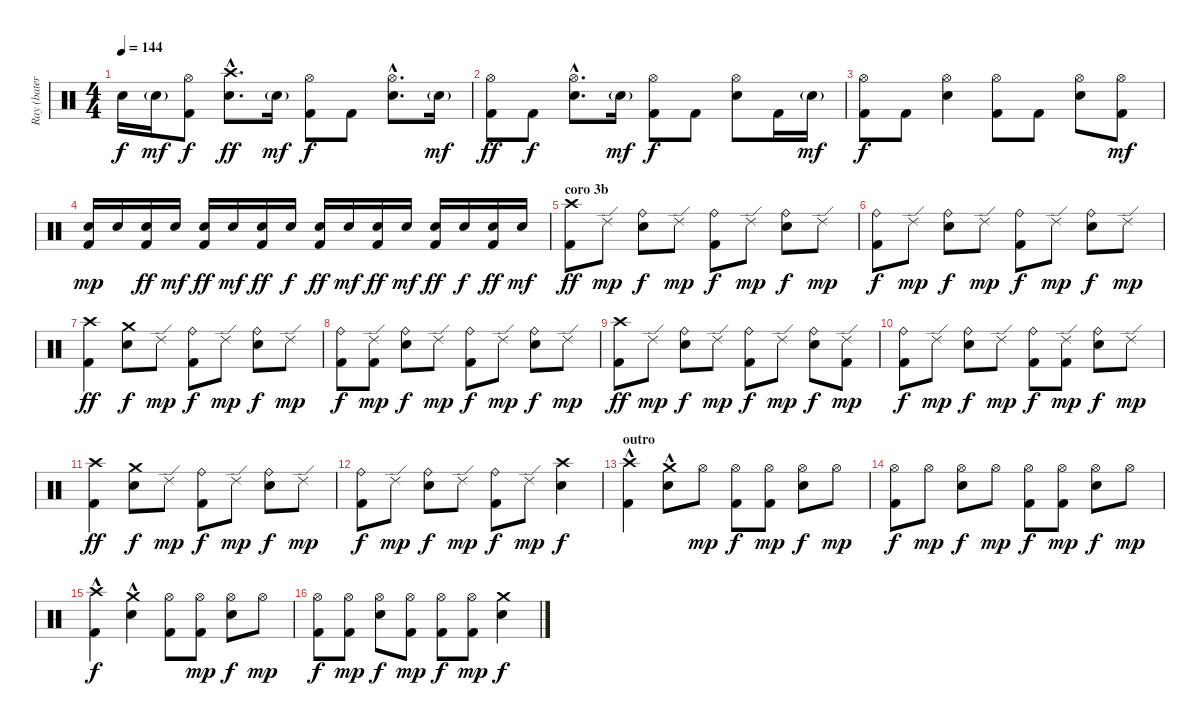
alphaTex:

\track ("Ray (batería)" "Ray (bater") {instrument percussion}
\staff {score}
\articulation defaults
\ts (4 4)
\tempo 144
\clef neutral
\ks c "Snare (hit) 2".16{dy f} "Snare (hit) 2"{g}.16{dy mf}
("Hi-Hat (open)" "Kick (hit) 2").8{dy f} ("Crash high (hit)"{hac} "Snare (hit) 2"{hac}).8{d dy ff} "Snare (hit) 2"{g}.16{dy mf} ("Hi-Hat (open)" "Kick (hit) 2").8{dy f} "Kick (hit) 2".8 ("Hi-Hat (open)"{hac} "Snare (hit) 2"{hac}).8{d} "Snare (hit) 2"{g}.16{dy mf} |
("Hi-Hat (open)" "Kick (hit) 2").8{dy ff} "Kick (hit) 2".8{dy f} ("Hi-Hat (open)"{hac} "Snare (hit) 2"{hac}).8{d} "Snare (hit) 2"{g}.16{dy mf} ("Hi-Hat (open)" "Kick (hit) 2").8{dy f} "Kick (hit) 2".8 ("Hi-Hat (open)" "Snare (hit) 2").8 "Kick (hit) 2".16 "Snare (hit) 2"{g}.16{dy mf} |
("Hi-Hat (open)" "Kick (hit) 2").8{dy f} "Kick (hit) 2".8 ("Hi-Hat (open)" "Snare (hit) 2").4 ("Hi-Hat (open)" "Kick (hit) 2").8 "Kick (hit) 2".8 ("Hi-Hat (open)" "Snare (hit) 2").8 ("Hi-Hat (open)" "Kick (hit) 2").8{dy mf} |
("Snare (hit) 2" "Kick (hit) 2").16{dy mp} "Snare (hit) 2".16 ("Snare (hit) 2" "Kick (hit) 2").16{dy ff} "Snare (hit) 2".16{dy mf} ("Snare (hit) 2" "Kick (hit) 2").16{dy ff} "Snare (hit) 2".16{dy mf} ("Snare (hit) 2" "Kick (hit) 2").16{dy ff} "Snare (hit) 2".16{dy f} ("Snare (hit) 2" "Kick (hit) 2").16{dy ff} "Snare (hit) 2".16{dy mf} ("Snare (hit) 2" "Kick (hit) 2").16{dy ff} "Snare (hit) 2".16{dy mf} ("Snare (hit) 2" "Kick (hit) 2").16{dy ff} "Snare (hit) 2".16{dy f} ("Snare (hit) 2" "Kick (hit) 2").16{dy ff} "Snare (hit) 2".16{dy mf} |
\section ("" "coro 3b")
("Crash high (hit)" "Kick (hit) 2").8{dy ff} "Ride (edge) 2".8{dy mp} ("Ride (bell)" "Snare (hit) 2").8{dy f} "Ride (edge) 2".8{dy mp} ("Ride (bell)" "Kick (hit) 2").8{dy f} "Ride (edge) 2".8{dy mp} ("Ride (bell)" "Snare (hit) 2").8{dy f} "Ride (edge) 2".8{dy mp} |
("Ride (bell)" "Kick (hit) 2").8{dy f} "Ride (edge) 2".8{dy mp} ("Ride (bell)" "Snare (hit) 2").8{dy f} "Ride (edge) 2".8{dy mp} ("Ride (bell)" "Kick (hit) 2").8{dy f} "Ride (edge) 2".8{dy mp} ("Ride (bell)" "Snare (hit) 2").8{dy f} "Ride (edge) 2".8{dy mp} |
("Crash high (hit)" "Kick (hit) 2").4{dy ff} ("Crash medium (hit)" "Snare (hit) 2").8{dy f} "Ride (edge) 2".8{dy mp} ("Ride (bell)" "Kick (hit) 2").8{dy f} "Ride (edge) 2".8{dy mp} ("Ride (bell)" "Snare (hit) 2").8{dy f} "Ride (edge) 2".8{dy mp} |
("Ride (bell)" "Kick (hit) 2").8{dy f} ("Ride (edge) 2" "Kick (hit) 2").8{dy mp} ("Ride (bell)" "Snare (hit) 2").8{dy f} "Ride (edge) 2".8{dy mp} ("Ride (bell)" "Kick (hit) 2").8{dy f} "Ride (edge) 2".8{dy mp} ("Ride (bell)" "Snare (hit) 2").8{dy f} "Ride (edge) 2".8{dy mp} |
("Crash high (hit)" "Kick (hit) 2").8{dy ff} "Ride (edge) 2".8{dy mp} ("Ride (bell)" "Snare (hit) 2").8{dy f} "Ride (edge) 2".8{dy mp} ("Ride (bell)" "Kick (hit) 2").8{dy f} "Ride (edge) 2".8{dy mp} ("Ride (bell)" "Snare (hit) 2").8{dy f} ("Ride (edge) 2" "Kick (hit) 2").8{dy mp} |
("Ride (bell)" "Kick (hit) 2").8{dy f} "Ride (edge) 2".8{dy mp} ("Ride (bell)" "Snare (hit) 2").8{dy f} "Ride (edge) 2".8{dy mp} ("Ride (bell)" "Kick (hit) 2").8{dy f} ("Ride (edge) 2" "Kick (hit) 2").8{dy mp} ("Ride (bell)" "Snare (hit) 2").8{dy f} "Ride (edge) 2".8{dy mp} |
("Crash high (hit)" "Kick (hit) 2").4{dy ff} ("Crash medium (hit)" "Snare (hit) 2").8{dy f} "Ride (edge) 2".8{dy mp} ("Ride (bell)" "Kick (hit) 2").8{dy f} "Ride (edge) 2".8{dy mp} ("Ride (bell)" "Snare (hit) 2").8{dy f} "Ride (edge) 2".8{dy mp} |
("Ride (bell)" "Kick (hit) 2").8{dy f} "Ride (edge) 2".8{dy mp} ("Ride (bell)" "Snare (hit) 2").8{dy f} "Ride (edge) 2".8{dy mp} ("Ride (bell)" "Kick (hit) 2").8{dy f} "Ride (edge) 2".8{dy mp} ("Crash high (hit)" "Snare (hit) 2").4{dy f} |
\section ("" "outro")
("Crash high (hit)"{hac} "Kick (hit) 2").4 ("Crash medium (hit)"{hac} "Snare (hit) 2").8 "Hi-Hat (open)".8{dy mp} ("Hi-Hat (open)" "Kick (hit) 2").8{dy f} ("Hi-Hat (open)" "Kick (hit) 2").8{dy mp} ("Hi-Hat (open)" "Snare (hit) 2").8{dy f} "Hi-Hat (open)".8{dy mp} |
("Hi-Hat (open)" "Kick (hit) 2").8{dy f} "Hi-Hat (open)".8{dy mp} ("Hi-Hat (open)" "Snare (hit) 2").8{dy f} "Hi-Hat (open)".8{dy mp} ("Hi-Hat (open)" "Kick (hit) 2").8{dy f} ("Hi-Hat (open)" "Kick (hit) 2").8{dy mp} ("Hi-Hat (open)" "Snare (hit) 2").8{dy f} "Hi-Hat (open)".8{dy mp} |
("Crash high (hit)"{hac} "Kick (hit) 2").4{dy f} ("Crash medium (hit)"{hac} "Snare (hit) 2").4 ("Hi-Hat (open)" "Kick (hit) 2").8 ("Hi-Hat (open)" "Kick (hit) 2").8{dy mp} ("Hi-Hat (open)" "Snare (hit) 2").8{dy f} "Hi-Hat (open)".8{dy mp} |
("Hi-Hat (open)" "Kick (hit) 2").8{dy f} ("Hi-Hat (open)" "Kick (hit) 2").8{dy mp} ("Hi-Hat (open)" "Snare (hit) 2").8{dy f} ("Hi-Hat (open)" "Kick (hit) 2").8{dy mp} ("Hi-Hat (open)" "Kick (hit) 2").8{dy f} ("Hi-Hat (open)" "Kick (hit) 2").8{dy mp} ("Crash medium (hit)" "Snare (hit) 2").4{dy f}
